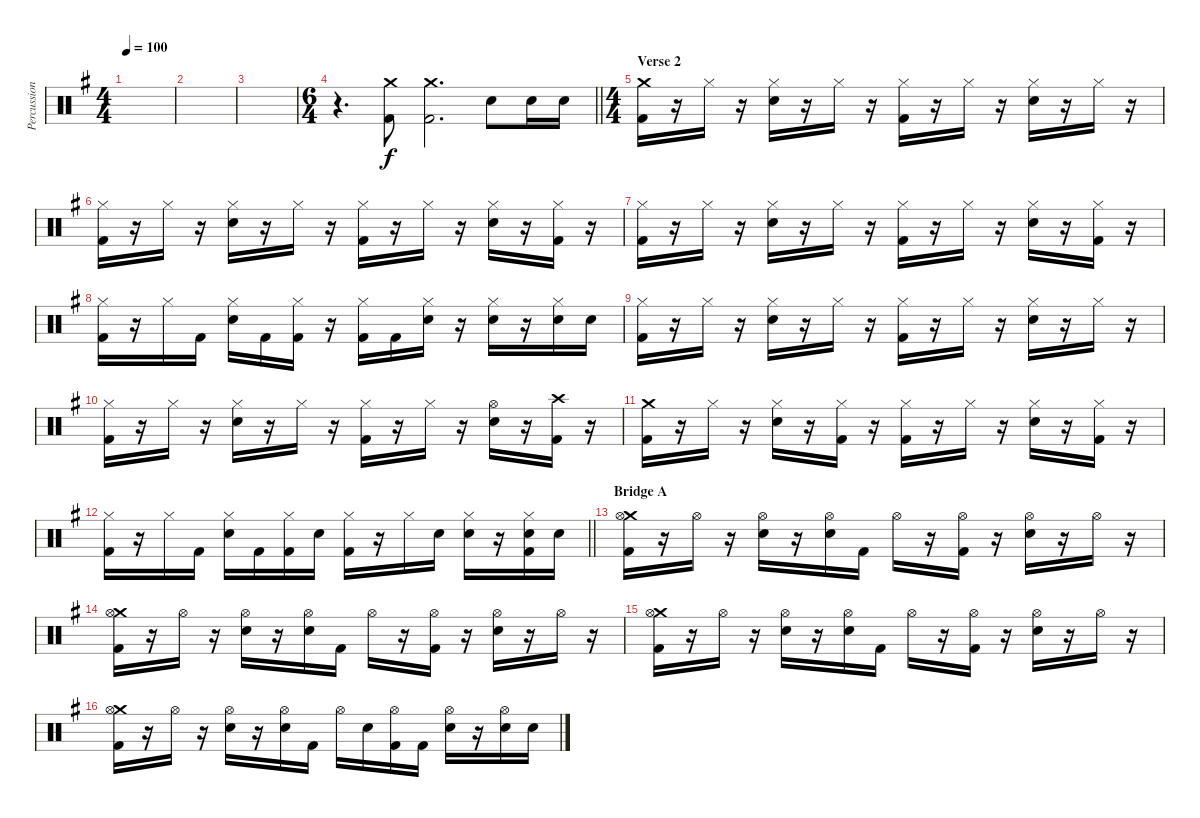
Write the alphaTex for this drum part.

\track ("Percussion" "Percussion") {instrument percussion}
\staff {score}
\articulation defaults
\ts (4 4)
\tempo 100
\clef neutral
\ks g
|
|
|
\ts (6 4)
\barLineRight lightlight
r.4{d} ("Crash medium (hit)" "Kick (hit) 2").8 ("Crash medium (hit)" "Kick (hit) 2").2{d} "Snare (hit) 2".8 "Snare (hit) 2".16 "Snare (hit) 2".16 |
\ts (4 4)
\section ("" "Verse 2")
("Crash medium (hit)" "Kick (hit) 2").16 r.16 "Hi-Hat (closed)".16 r.16 ("Hi-Hat (closed)" "Snare (hit) 2").16 r.16 "Hi-Hat (closed)".16 r.16 ("Hi-Hat (closed)" "Kick (hit) 2").16 r.16 "Hi-Hat (closed)".16 r.16 ("Hi-Hat (closed)" "Snare (hit) 2").16 r.16 "Hi-Hat (closed)".16 r.16 |
("Hi-Hat (closed)" "Kick (hit) 2").16 r.16 "Hi-Hat (closed)".16 r.16 ("Hi-Hat (closed)" "Snare (hit) 2").16 r.16 "Hi-Hat (closed)".16 r.16 ("Hi-Hat (closed)" "Kick (hit) 2").16 r.16 "Hi-Hat (closed)".16 r.16 ("Hi-Hat (closed)" "Snare (hit) 2").16 r.16 ("Hi-Hat (closed)" "Kick (hit) 2").16 r.16 |
("Hi-Hat (closed)" "Kick (hit) 2").16 r.16 "Hi-Hat (closed)".16 r.16 ("Hi-Hat (closed)" "Snare (hit) 2").16 r.16 "Hi-Hat (closed)".16 r.16 ("Hi-Hat (closed)" "Kick (hit) 2").16 r.16 "Hi-Hat (closed)".16 r.16 ("Hi-Hat (closed)" "Snare (hit) 2").16 r.16 ("Hi-Hat (closed)" "Kick (hit) 2").16 r.16 |
("Hi-Hat (closed)" "Kick (hit) 2").16 r.16 "Hi-Hat (closed)".16 "Kick (hit) 2".16 ("Hi-Hat (closed)" "Snare (hit) 2").16 "Kick (hit) 2".16 ("Hi-Hat (closed)" "Kick (hit) 2").16 r.16 ("Hi-Hat (closed)" "Kick (hit) 2").16 "Kick (hit) 2".16 ("Hi-Hat (closed)" "Snare (hit) 2").16 r.16 ("Hi-Hat (closed)" "Snare (hit) 2").16 r.16 ("Hi-Hat (closed)" "Snare (hit) 2").16 "Snare (hit) 2".16 |
("Hi-Hat (closed)" "Kick (hit) 2").16 r.16 "Hi-Hat (closed)".16 r.16 ("Hi-Hat (closed)" "Snare (hit) 2").16 r.16 "Hi-Hat (closed)".16 r.16 ("Hi-Hat (closed)" "Kick (hit) 2").16 r.16 "Hi-Hat (closed)".16 r.16 ("Hi-Hat (closed)" "Snare (hit) 2").16 r.16 "Hi-Hat (closed)".16 r.16 |
("Hi-Hat (closed)" "Kick (hit) 2").16 r.16 "Hi-Hat (closed)".16 r.16 ("Hi-Hat (closed)" "Snare (hit) 2").16 r.16 "Hi-Hat (closed)".16 r.16 ("Hi-Hat (closed)" "Kick (hit) 2").16 r.16 "Hi-Hat (closed)".16 r.16 ("Hi-Hat (open)" "Snare (hit) 2").16 r.16 ("Crash high (hit)" "Kick (hit) 2").16 r.16 |
("Crash medium (hit)" "Kick (hit) 2").16 r.16 "Hi-Hat (closed)".16 r.16 ("Hi-Hat (closed)" "Snare (hit) 2").16 r.16 ("Hi-Hat (closed)" "Kick (hit) 2").16 r.16 ("Hi-Hat (closed)" "Kick (hit) 2").16 r.16 "Hi-Hat (closed)".16 r.16 ("Hi-Hat (closed)" "Snare (hit) 2").16 r.16 ("Hi-Hat (closed)" "Kick (hit) 2").16 r.16 |
\barLineRight lightlight
("Hi-Hat (closed)" "Kick (hit) 2").16 r.16 "Hi-Hat (closed)".16 "Kick (hit) 2".16 ("Hi-Hat (closed)" "Snare (hit) 2").16 "Kick (hit) 2".16 ("Hi-Hat (closed)" "Kick (hit) 2").16 "Snare (hit) 2".16 ("Hi-Hat (closed)" "Kick (hit) 2").16 r.16 "Hi-Hat (closed)".16 "Snare (hit) 2".16 ("Hi-Hat (closed)" "Snare (hit) 2").16 r.16 ("Hi-Hat (closed)" "Snare (hit) 2" "Kick (hit) 2").16 "Snare (hit) 2".16 |
\section ("" "Bridge A")
("Crash medium (hit)" "Hi-Hat (open)" "Kick (hit) 2").16 r.16 "Hi-Hat (open)".16 r.16 ("Hi-Hat (open)" "Snare (hit) 2").16 r.16 ("Hi-Hat (open)" "Snare (hit) 2").16 "Kick (hit) 2".16 "Hi-Hat (open)".16 r.16 ("Hi-Hat (open)" "Kick (hit) 2").16 r.16 ("Hi-Hat (open)" "Snare (hit) 2").16 r.16 "Hi-Hat (open)".16 r.16 |
("Crash medium (hit)" "Hi-Hat (open)" "Kick (hit) 2").16 r.16 "Hi-Hat (open)".16 r.16 ("Hi-Hat (open)" "Snare (hit) 2").16 r.16 ("Hi-Hat (open)" "Snare (hit) 2").16 "Kick (hit) 2".16 "Hi-Hat (open)".16 r.16 ("Hi-Hat (open)" "Kick (hit) 2").16 r.16 ("Hi-Hat (open)" "Snare (hit) 2").16 r.16 "Hi-Hat (open)".16 r.16 |
("Crash medium (hit)" "Hi-Hat (open)" "Kick (hit) 2").16 r.16 "Hi-Hat (open)".16 r.16 ("Hi-Hat (open)" "Snare (hit) 2").16 r.16 ("Hi-Hat (open)" "Snare (hit) 2").16 "Kick (hit) 2".16 "Hi-Hat (open)".16 r.16 ("Hi-Hat (open)" "Kick (hit) 2").16 r.16 ("Hi-Hat (open)" "Snare (hit) 2").16 r.16 "Hi-Hat (open)".16 r.16 |
("Crash medium (hit)" "Hi-Hat (open)" "Kick (hit) 2").16 r.16 "Hi-Hat (open)".16 r.16 ("Hi-Hat (open)" "Snare (hit) 2").16 r.16 ("Hi-Hat (open)" "Snare (hit) 2").16 "Kick (hit) 2".16 "Hi-Hat (open)".16 "Snare (hit) 2".16 ("Hi-Hat (open)" "Kick (hit) 2").16 "Kick (hit) 2".16 ("Hi-Hat (open)" "Snare (hit) 2").16 r.16 ("Hi-Hat (open)" "Snare (hit) 2").16 "Snare (hit) 2".16
